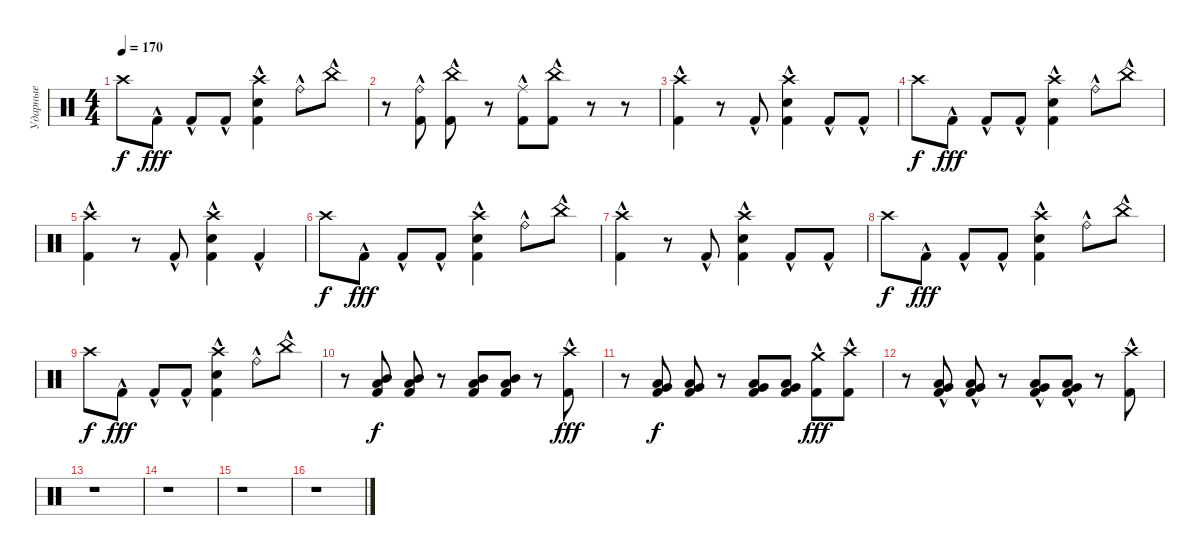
\track ("Ударные" "Ударные") {instrument percussion}
\staff {score}
\articulation defaults
\ts (4 4)
\tempo 170
\clef neutral
\ks c "Crash high (hit)".8{dy f} "Kick (hit) 2"{hac}.8{dy fff} "Kick (hit) 2"{hac}.8 "Kick (hit) 2"{hac}.8
("Kick (hit) 2"{hac} "Snare (hit) 2" "Crash high (hit)").4 "Ride (bell)"{hac}.8 "China (hit)"{hac}.8 |
r.8 ("Ride (bell)"{hac} "Kick (hit) 2"{hac}).8 ("China (hit)"{hac} "Kick (hit) 2"{hac}).8 r.8 ("Ride (middle)"{hac} "Kick (hit) 2"{hac}).8 ("China (hit)"{hac} "Kick (hit) 2"{hac}).8 r.8 r.8 |
("Kick (hit) 2"{hac} "Crash high (hit)").4 r.8 "Kick (hit) 2"{hac}.8 ("Kick (hit) 2"{hac} "Crash high (hit)" "Snare (hit) 2").4 "Kick (hit) 2"{hac}.8 "Kick (hit) 2"{hac}.8 |
"Crash high (hit)".8{dy f} "Kick (hit) 2"{hac}.8{dy fff} "Kick (hit) 2"{hac}.8 "Kick (hit) 2"{hac}.8 ("Kick (hit) 2"{hac} "Snare (hit) 2" "Crash high (hit)").4 "Ride (bell)"{hac}.8 "China (hit)"{hac}.8 |
("Kick (hit) 2"{hac} "Crash high (hit)").4 r.8 "Kick (hit) 2"{hac}.8 ("Kick (hit) 2"{hac} "Crash high (hit)" "Snare (hit) 2").4 "Kick (hit) 2"{hac}.4 |
"Crash high (hit)".8{dy f} "Kick (hit) 2"{hac}.8{dy fff} "Kick (hit) 2"{hac}.8 "Kick (hit) 2"{hac}.8 ("Kick (hit) 2"{hac} "Snare (hit) 2" "Crash high (hit)").4 "Ride (bell)"{hac}.8 "China (hit)"{hac}.8 |
("Kick (hit) 2"{hac} "Crash high (hit)").4 r.8 "Kick (hit) 2"{hac}.8 ("Kick (hit) 2"{hac} "Crash high (hit)" "Snare (hit) 2").4 "Kick (hit) 2"{hac}.8 "Kick (hit) 2"{hac}.8 |
"Crash high (hit)".8{dy f} "Kick (hit) 2"{hac}.8{dy fff} "Kick (hit) 2"{hac}.8 "Kick (hit) 2"{hac}.8 ("Kick (hit) 2"{hac} "Snare (hit) 2" "Crash high (hit)").4 "Ride (bell)"{hac}.8 "China (hit)"{hac}.8 |
"Crash high (hit)".8{dy f} "Kick (hit) 2"{hac}.8{dy fff} "Kick (hit) 2"{hac}.8 "Kick (hit) 2"{hac}.8 ("Kick (hit) 2"{hac} "Snare (hit) 2" "Crash high (hit)").4 "Ride (bell)"{hac}.8 "China (hit)"{hac}.8 |
r.8 ("Mid Tom (hit)" "Low Tom (hit)" "Kick (hit) 2").8{dy f} ("Mid Tom (hit)" "Low Tom (hit)" "Kick (hit) 2").8 r.8 ("Mid Tom (hit)" "Low Tom (hit)" "Kick (hit) 2").8 ("Mid Tom (hit)" "Low Tom (hit)" "Kick (hit) 2").8 r.8 ("Kick (hit) 2"{hac} "Crash high (hit)").8{dy fff} |
r.8 ("Low Tom (hit)" "Very Low Tom (hit)" "Kick (hit) 2").8{dy f} ("Low Tom (hit)" "Very Low Tom (hit)" "Kick (hit) 2").8 r.8 ("Very Low Tom (hit)" "Low Tom (hit)" "Kick (hit) 2").8 ("Low Tom (hit)" "Very Low Tom (hit)" "Kick (hit) 2").8 ("Kick (hit) 2"{hac} "Crash medium (hit)").8{dy fff} ("Kick (hit) 2"{hac} "Crash high (hit)").8 |
r.8 ("Kick (hit) 2"{hac} "Low Floor Tom (hit)"{hac} "Very Low Tom (hit)"{hac}).8 ("Kick (hit) 2"{hac} "Low Floor Tom (hit)"{hac} "Very Low Tom (hit)"{hac}).8 r.8 ("Kick (hit) 2"{hac} "Low Floor Tom (hit)"{hac} "Very Low Tom (hit)"{hac}).8 ("Kick (hit) 2"{hac} "Low Floor Tom (hit)"{hac} "Very Low Tom (hit)"{hac}).8 r.8 ("Kick (hit) 2"{hac} "Crash high (hit)").8 |
r.1 |
r.1 |
r.1 |
r.1
